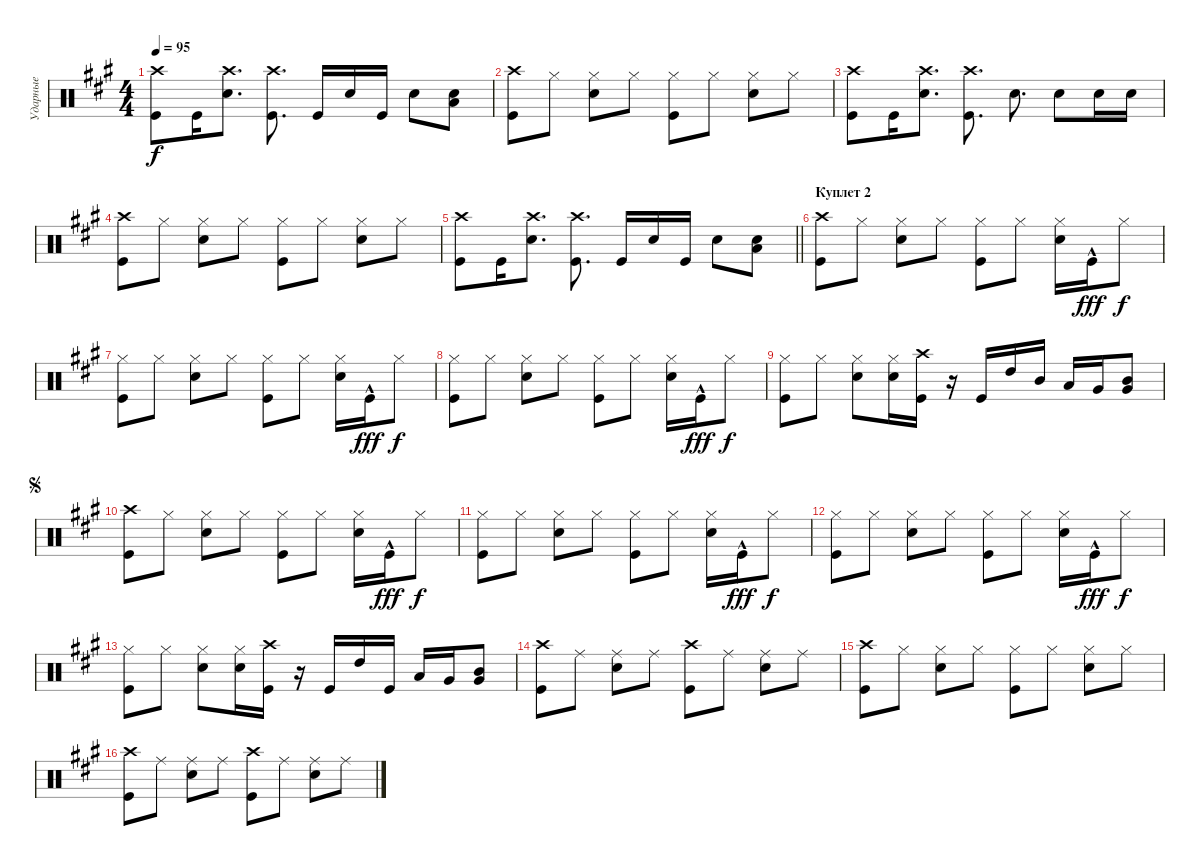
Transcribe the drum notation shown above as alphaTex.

\track ("Ударные" "Ударные") {instrument percussion}
\staff {score}
\articulation defaults
\ts (4 4)
\tempo 95
\clef neutral
\ks a
("Crash high (hit)" "Kick (hit)").8{dy f} "Kick (hit)".16 ("Crash high (hit)" "Snare (hit) 2").8{d} ("Crash high (hit)" "Kick (hit)").8{d} "Kick (hit)".16 "Snare (hit) 2".16 "Kick (hit)".16 "Snare (hit) 2".8 ("Low Tom (hit)" "Snare (hit) 2").8 |
("Crash high (hit)" "Kick (hit)").8 "Hi-Hat (closed)".8 ("Hi-Hat (closed)" "Snare (hit) 2").8 "Hi-Hat (closed)".8 ("Hi-Hat (closed)" "Kick (hit)").8 "Hi-Hat (closed)".8 ("Hi-Hat (closed)" "Snare (hit) 2").8 "Hi-Hat (closed)".8 |
("Crash high (hit)" "Kick (hit)").8 "Kick (hit)".16 ("Crash high (hit)" "Snare (hit) 2").8{d} ("Crash high (hit)" "Kick (hit)").8{d} "Snare (hit) 2".8{d} "Snare (hit) 2".8 "Snare (hit) 2".16 "Snare (hit) 2".16 |
("Crash high (hit)" "Kick (hit)").8 "Hi-Hat (closed)".8 ("Hi-Hat (closed)" "Snare (hit) 2").8 "Hi-Hat (closed)".8 ("Hi-Hat (closed)" "Kick (hit)").8 "Hi-Hat (closed)".8 ("Hi-Hat (closed)" "Snare (hit) 2").8 "Hi-Hat (closed)".8 |
\barLineRight lightlight
("Crash high (hit)" "Kick (hit)").8 "Kick (hit)".16 ("Crash high (hit)" "Snare (hit) 2").8{d} ("Crash high (hit)" "Kick (hit)").8{d} "Kick (hit)".16 "Snare (hit) 2".16 "Kick (hit)".16 "Snare (hit) 2".8 ("Low Tom (hit)" "Snare (hit) 2").8 |
\section ("" "Куплет 2")
("Crash high (hit)" "Kick (hit)").8 "Hi-Hat (closed)".8 ("Hi-Hat (closed)" "Snare (hit) 2").8 "Hi-Hat (closed)".8 ("Hi-Hat (closed)" "Kick (hit)").8 "Hi-Hat (closed)".8 ("Hi-Hat (closed)" "Snare (hit) 2").16 "Kick (hit)"{hac}.16{dy fff} "Hi-Hat (closed)".8{dy f} |
("Hi-Hat (closed)" "Kick (hit)").8 "Hi-Hat (closed)".8 ("Hi-Hat (closed)" "Snare (hit) 2").8 "Hi-Hat (closed)".8 ("Hi-Hat (closed)" "Kick (hit)").8 "Hi-Hat (closed)".8 ("Hi-Hat (closed)" "Snare (hit) 2").16 "Kick (hit)"{hac}.16{dy fff} "Hi-Hat (closed)".8{dy f} |
("Hi-Hat (closed)" "Kick (hit)").8 "Hi-Hat (closed)".8 ("Hi-Hat (closed)" "Snare (hit) 2").8 "Hi-Hat (closed)".8 ("Hi-Hat (closed)" "Kick (hit)").8 "Hi-Hat (closed)".8 ("Hi-Hat (closed)" "Snare (hit) 2").16 "Kick (hit)"{hac}.16{dy fff} "Hi-Hat (closed)".8{dy f} |
("Hi-Hat (closed)" "Kick (hit)").8 "Hi-Hat (closed)".8 ("Hi-Hat (closed)" "Snare (hit) 2").8 ("Hi-Hat (closed)" "Snare (hit) 2").16 ("Crash high (hit)" "Kick (hit)").16 r.16 "Kick (hit)".16 "High Tom (hit)".16 "Mid Tom (hit)".16 "Low Tom (hit)".16 "Very Low Tom (hit)".16 ("Very Low Tom (hit)" "Mid Tom (hit)").8 |
\jump segno
("Crash high (hit)" "Kick (hit)").8 "Hi-Hat (closed)".8 ("Hi-Hat (closed)" "Snare (hit) 2").8 "Hi-Hat (closed)".8 ("Hi-Hat (closed)" "Kick (hit)").8 "Hi-Hat (closed)".8 ("Hi-Hat (closed)" "Snare (hit) 2").16 "Kick (hit)"{hac}.16{dy fff} "Hi-Hat (closed)".8{dy f} |
("Hi-Hat (closed)" "Kick (hit)").8 "Hi-Hat (closed)".8 ("Hi-Hat (closed)" "Snare (hit) 2").8 "Hi-Hat (closed)".8 ("Hi-Hat (closed)" "Kick (hit)").8 "Hi-Hat (closed)".8 ("Hi-Hat (closed)" "Snare (hit) 2").16 "Kick (hit)"{hac}.16{dy fff} "Hi-Hat (closed)".8{dy f} |
("Hi-Hat (closed)" "Kick (hit)").8 "Hi-Hat (closed)".8 ("Hi-Hat (closed)" "Snare (hit) 2").8 "Hi-Hat (closed)".8 ("Hi-Hat (closed)" "Kick (hit)").8 "Hi-Hat (closed)".8 ("Hi-Hat (closed)" "Snare (hit) 2").16 "Kick (hit)"{hac}.16{dy fff} "Hi-Hat (closed)".8{dy f} |
("Hi-Hat (closed)" "Kick (hit)").8 "Hi-Hat (closed)".8 ("Hi-Hat (closed)" "Snare (hit) 2").8 ("Hi-Hat (closed)" "Snare (hit) 2").16 ("Crash high (hit)" "Kick (hit)").16 r.16 "Kick (hit)".16 "High Tom (hit)".16 "Kick (hit)".16 "Low Tom (hit)".16 "Very Low Tom (hit)".16 ("Very Low Tom (hit)" "Mid Tom (hit)").8 |
("Crash high (hit)" "Kick (hit)").8 "Ride (middle)".8 ("Ride (middle)" "Snare (hit) 2").8 "Ride (middle)".8 ("Crash high (hit)" "Kick (hit)").8 "Ride (middle)".8 ("Ride (middle)" "Snare (hit) 2").8 "Ride (middle)".8 |
("Crash high (hit)" "Kick (hit)").8 "Hi-Hat (closed)".8 ("Hi-Hat (closed)" "Snare (hit) 2").8 "Hi-Hat (closed)".8 ("Hi-Hat (closed)" "Kick (hit)").8 "Hi-Hat (closed)".8 ("Hi-Hat (closed)" "Snare (hit) 2").8 "Hi-Hat (closed)".8 |
("Crash high (hit)" "Kick (hit)").8 "Ride (middle)".8 ("Ride (middle)" "Snare (hit) 2").8 "Ride (middle)".8 ("Crash high (hit)" "Kick (hit)").8 "Ride (middle)".8 ("Ride (middle)" "Snare (hit) 2").8 "Ride (middle)".8
